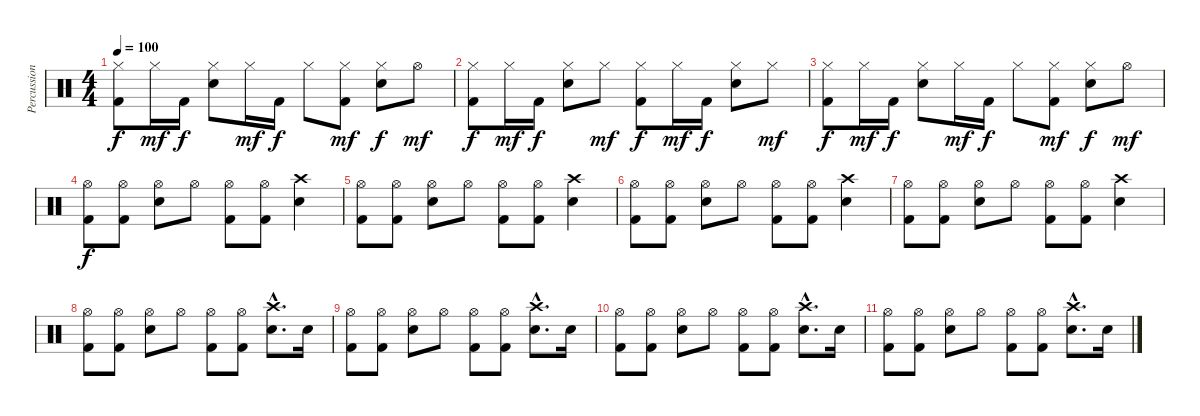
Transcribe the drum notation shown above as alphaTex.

\track ("Percussioni" "Percussion") {instrument percussion}
\staff {score}
\articulation defaults
\ts (4 4)
\tempo 100
\clef neutral
\ks c
("Hi-Hat (closed)" "Kick (hit) 2").8{dy f} "Hi-Hat (closed)".16{dy mf} "Kick (hit) 2".16{dy f} ("Hi-Hat (closed)" "Snare (hit) 2").8 "Hi-Hat (closed)".16{dy mf} "Kick (hit) 2".16{dy f} "Hi-Hat (closed)".8 ("Hi-Hat (closed)" "Kick (hit) 2").8{dy mf} ("Hi-Hat (closed)" "Snare (hit) 2").8{dy f} "Hi-Hat (open)".8{dy mf} |
("Hi-Hat (closed)" "Kick (hit) 2").8{dy f} "Hi-Hat (closed)".16{dy mf} "Kick (hit) 2".16{dy f} ("Hi-Hat (closed)" "Snare (hit) 2").8 "Hi-Hat (closed)".8{dy mf} ("Hi-Hat (closed)" "Kick (hit) 2").8{dy f} "Hi-Hat (closed)".16{dy mf} "Kick (hit) 2".16{dy f} ("Hi-Hat (closed)" "Snare (hit) 2").8 "Hi-Hat (closed)".8{dy mf} |
("Hi-Hat (closed)" "Kick (hit) 2").8{dy f} "Hi-Hat (closed)".16{dy mf} "Kick (hit) 2".16{dy f} ("Hi-Hat (closed)" "Snare (hit) 2").8 "Hi-Hat (closed)".16{dy mf} "Kick (hit) 2".16{dy f} "Hi-Hat (closed)".8 ("Hi-Hat (closed)" "Kick (hit) 2").8{dy mf} ("Hi-Hat (closed)" "Snare (hit) 2").8{dy f} "Hi-Hat (open)".8{dy mf} |
("Hi-Hat (open)" "Kick (hit) 2").8{dy f} ("Hi-Hat (open)" "Kick (hit) 2").8 ("Hi-Hat (open)" "Snare (hit) 2").8 "Hi-Hat (open)".8 ("Hi-Hat (open)" "Kick (hit) 2").8 ("Hi-Hat (open)" "Kick (hit) 2").8 ("Crash high (hit)" "Snare (hit) 2").4 |
("Hi-Hat (open)" "Kick (hit) 2").8 ("Hi-Hat (open)" "Kick (hit) 2").8 ("Hi-Hat (open)" "Snare (hit) 2").8 "Hi-Hat (open)".8 ("Hi-Hat (open)" "Kick (hit) 2").8 ("Hi-Hat (open)" "Kick (hit) 2").8 ("Crash high (hit)" "Snare (hit) 2").4 |
("Hi-Hat (open)" "Kick (hit) 2").8 ("Hi-Hat (open)" "Kick (hit) 2").8 ("Hi-Hat (open)" "Snare (hit) 2").8 "Hi-Hat (open)".8 ("Hi-Hat (open)" "Kick (hit) 2").8 ("Hi-Hat (open)" "Kick (hit) 2").8 ("Crash high (hit)" "Snare (hit) 2").4 |
("Hi-Hat (open)" "Kick (hit) 2").8 ("Hi-Hat (open)" "Kick (hit) 2").8 ("Hi-Hat (open)" "Snare (hit) 2").8 "Hi-Hat (open)".8 ("Hi-Hat (open)" "Kick (hit) 2").8 ("Hi-Hat (open)" "Kick (hit) 2").8 ("Crash high (hit)" "Snare (hit) 2").4 |
("Hi-Hat (open)" "Kick (hit) 2").8 ("Hi-Hat (open)" "Kick (hit) 2").8 ("Hi-Hat (open)" "Snare (hit) 2").8 "Hi-Hat (open)".8 ("Hi-Hat (open)" "Kick (hit) 2").8 ("Hi-Hat (open)" "Kick (hit) 2").8 ("Crash high (hit)"{hac} "Snare (hit) 2"{hac}).8{d} "Snare (hit) 2".16 |
("Hi-Hat (open)" "Kick (hit) 2").8 ("Hi-Hat (open)" "Kick (hit) 2").8 ("Hi-Hat (open)" "Snare (hit) 2").8 "Hi-Hat (open)".8 ("Hi-Hat (open)" "Kick (hit) 2").8 ("Hi-Hat (open)" "Kick (hit) 2").8 ("Crash high (hit)"{hac} "Snare (hit) 2"{hac}).8{d} "Snare (hit) 2".16 |
("Hi-Hat (open)" "Kick (hit) 2").8 ("Hi-Hat (open)" "Kick (hit) 2").8 ("Hi-Hat (open)" "Snare (hit) 2").8 "Hi-Hat (open)".8 ("Hi-Hat (open)" "Kick (hit) 2").8 ("Hi-Hat (open)" "Kick (hit) 2").8 ("Crash high (hit)"{hac} "Snare (hit) 2"{hac}).8{d} "Snare (hit) 2".16 |
("Hi-Hat (open)" "Kick (hit) 2").8 ("Hi-Hat (open)" "Kick (hit) 2").8 ("Hi-Hat (open)" "Snare (hit) 2").8 "Hi-Hat (open)".8 ("Hi-Hat (open)" "Kick (hit) 2").8 ("Hi-Hat (open)" "Kick (hit) 2").8 ("Crash high (hit)"{hac} "Snare (hit) 2"{hac}).8{d} "Snare (hit) 2".16
